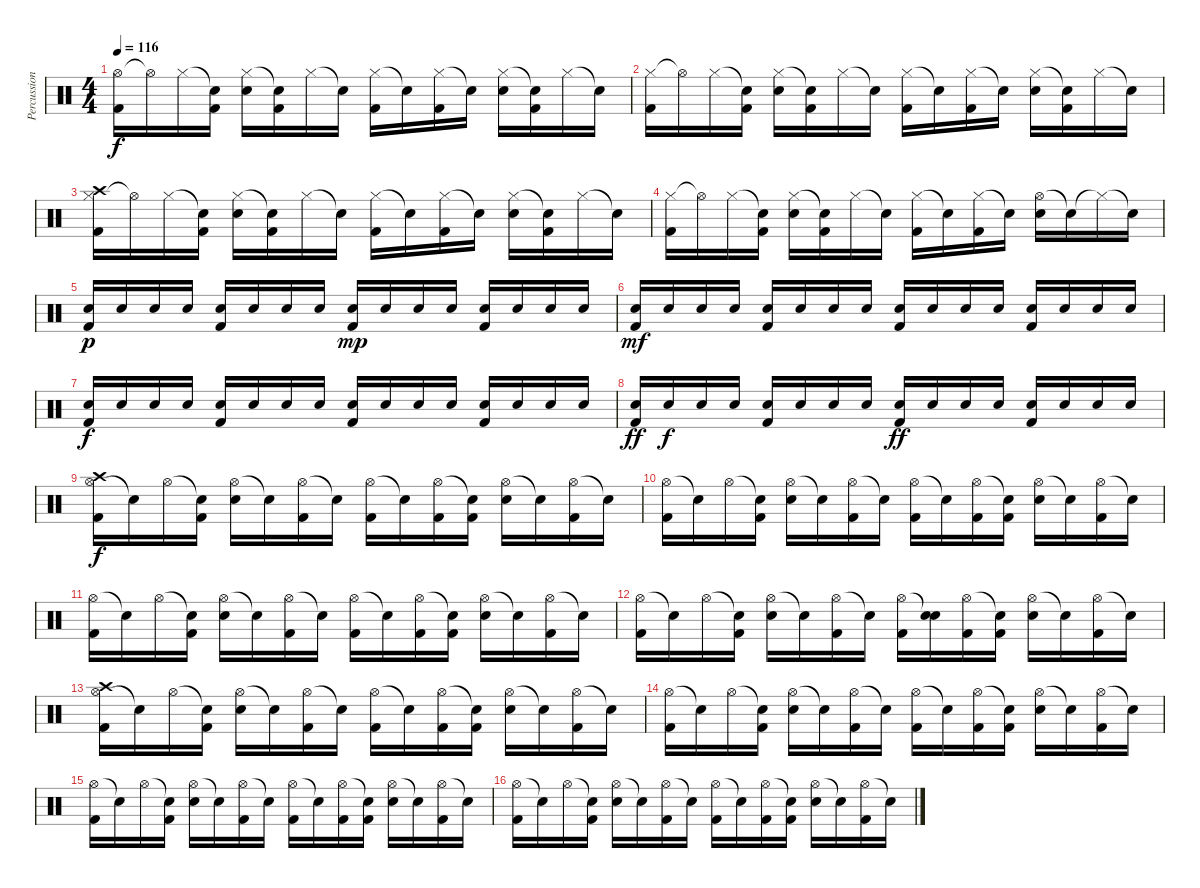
\track ("Percussion" "Percussion") {instrument percussion}
\staff {score}
\articulation defaults
\ts (4 4)
\tempo 116
\clef neutral
\ks c
("Hi-Hat (open)" "Kick (hit) 2").16{dy f} "Hi-Hat (open)"{t}.16 "Hi-Hat (closed)".16 ("Snare (hit)"{t} "Kick (hit) 2").16 ("Hi-Hat (closed)" "Electric Snare (hit)").16 ("Snare (hit)"{t} "Kick (hit) 2").16 "Hi-Hat (closed)".16 "Snare (hit)"{t}.16 ("Hi-Hat (closed)" "Kick (hit) 2").16 "Snare (hit)"{t}.16 ("Hi-Hat (closed)" "Kick (hit) 2").16 "Snare (hit)"{t}.16 ("Hi-Hat (closed)" "Electric Snare (hit)").16 ("Snare (hit)"{t} "Kick (hit) 2").16 "Hi-Hat (closed)".16 "Snare (hit)"{t}.16 |
("Hi-Hat (closed)" "Kick (hit) 2").16 "Hi-Hat (open)"{t}.16 "Hi-Hat (closed)".16 ("Snare (hit)"{t} "Kick (hit) 2").16 ("Hi-Hat (closed)" "Electric Snare (hit)").16 ("Snare (hit)"{t} "Kick (hit) 2").16 "Hi-Hat (closed)".16 "Snare (hit)"{t}.16 ("Hi-Hat (closed)" "Kick (hit) 2").16 "Snare (hit)"{t}.16 ("Hi-Hat (closed)" "Kick (hit) 2").16 "Snare (hit)"{t}.16 ("Hi-Hat (closed)" "Electric Snare (hit)").16 ("Snare (hit)"{t} "Kick (hit) 2").16 "Hi-Hat (closed)".16 "Snare (hit)"{t}.16 |
("Hi-Hat (closed)" "Kick (hit) 2" "Crash high (hit)").16 "Hi-Hat (open)"{t}.16 "Hi-Hat (closed)".16 ("Snare (hit)"{t} "Kick (hit) 2").16 ("Hi-Hat (closed)" "Electric Snare (hit)").16 ("Snare (hit)"{t} "Kick (hit) 2").16 "Hi-Hat (closed)".16 "Snare (hit)"{t}.16 ("Hi-Hat (closed)" "Kick (hit) 2").16 "Snare (hit)"{t}.16 ("Hi-Hat (closed)" "Kick (hit) 2").16 "Snare (hit)"{t}.16 ("Hi-Hat (closed)" "Electric Snare (hit)").16 ("Snare (hit)"{t} "Kick (hit) 2").16 "Hi-Hat (closed)".16 "Snare (hit)"{t}.16 |
("Hi-Hat (closed)" "Kick (hit) 2").16 "Hi-Hat (open)"{t}.16 "Hi-Hat (closed)".16 ("Snare (hit)"{t} "Kick (hit) 2").16 ("Hi-Hat (closed)" "Electric Snare (hit)").16 ("Snare (hit)"{t} "Kick (hit) 2").16 "Hi-Hat (closed)".16 "Snare (hit)"{t}.16 ("Hi-Hat (closed)" "Kick (hit) 2").16 "Snare (hit)"{t}.16 ("Hi-Hat (closed)" "Kick (hit) 2").16 "Snare (hit)"{t}.16 ("Hi-Hat (open)" "Electric Snare (hit)").16 "Snare (hit)"{t}.16 "Hi-Hat (closed)"{t}.16 "Snare (hit)"{t}.16 |
("Kick (hit) 2" "Electric Snare (hit)").16{dy p} "Electric Snare (hit)".16 "Electric Snare (hit)".16 "Electric Snare (hit)".16 ("Kick (hit) 2" "Electric Snare (hit)").16 "Electric Snare (hit)".16 "Electric Snare (hit)".16 "Electric Snare (hit)".16 ("Kick (hit) 2" "Electric Snare (hit)").16{dy mp} "Electric Snare (hit)".16 "Electric Snare (hit)".16 "Electric Snare (hit)".16 ("Kick (hit) 2" "Electric Snare (hit)").16 "Electric Snare (hit)".16 "Electric Snare (hit)".16 "Electric Snare (hit)".16 |
("Kick (hit) 2" "Electric Snare (hit)").16{dy mf} "Electric Snare (hit)".16 "Electric Snare (hit)".16 "Electric Snare (hit)".16 ("Kick (hit) 2" "Electric Snare (hit)").16 "Electric Snare (hit)".16 "Electric Snare (hit)".16 "Electric Snare (hit)".16 ("Kick (hit) 2" "Electric Snare (hit)").16 "Electric Snare (hit)".16 "Electric Snare (hit)".16 "Electric Snare (hit)".16 ("Kick (hit) 2" "Electric Snare (hit)").16 "Electric Snare (hit)".16 "Electric Snare (hit)".16 "Electric Snare (hit)".16 |
("Kick (hit) 2" "Electric Snare (hit)").16{dy f} "Electric Snare (hit)".16 "Electric Snare (hit)".16 "Electric Snare (hit)".16 ("Kick (hit) 2" "Electric Snare (hit)").16 "Electric Snare (hit)".16 "Electric Snare (hit)".16 "Electric Snare (hit)".16 ("Kick (hit) 2" "Electric Snare (hit)").16 "Electric Snare (hit)".16 "Electric Snare (hit)".16 "Electric Snare (hit)".16 ("Kick (hit) 2" "Electric Snare (hit)").16 "Electric Snare (hit)".16 "Electric Snare (hit)".16 "Electric Snare (hit)".16 |
("Kick (hit) 2" "Electric Snare (hit)").16{dy ff} "Electric Snare (hit)".16{dy f} "Electric Snare (hit)".16 "Electric Snare (hit)".16 ("Kick (hit) 2" "Electric Snare (hit)").16 "Electric Snare (hit)".16 "Electric Snare (hit)".16 "Electric Snare (hit)".16 ("Kick (hit) 2" "Electric Snare (hit)").16{dy ff} "Electric Snare (hit)".16 "Electric Snare (hit)".16 "Electric Snare (hit)".16 ("Kick (hit) 2" "Electric Snare (hit)").16 "Electric Snare (hit)".16 "Electric Snare (hit)".16 "Electric Snare (hit)".16 |
("Hi-Hat (open)" "Kick (hit) 2" "Crash high (hit)").16{dy f volume 15} "Snare (hit)"{t}.16 "Hi-Hat (open)".16 ("Snare (hit)"{t} "Kick (hit) 2").16 ("Hi-Hat (open)" "Electric Snare (hit)").16 "Snare (hit)"{t}.16 ("Hi-Hat (open)" "Kick (hit) 2").16 "Snare (hit)"{t}.16 ("Hi-Hat (open)" "Kick (hit) 2").16 "Snare (hit)"{t}.16 ("Hi-Hat (open)" "Kick (hit) 2").16 ("Snare (hit)"{t} "Kick (hit) 2").16 ("Hi-Hat (open)" "Electric Snare (hit)").16 "Snare (hit)"{t}.16 ("Hi-Hat (open)" "Kick (hit) 2").16 "Snare (hit)"{t}.16 |
("Hi-Hat (open)" "Kick (hit) 2").16 "Snare (hit)"{t}.16 "Hi-Hat (open)".16 ("Snare (hit)"{t} "Kick (hit) 2").16 ("Hi-Hat (open)" "Electric Snare (hit)").16 "Snare (hit)"{t}.16 ("Hi-Hat (open)" "Kick (hit) 2").16 "Snare (hit)"{t}.16 ("Hi-Hat (open)" "Kick (hit) 2").16 "Snare (hit)"{t}.16 ("Hi-Hat (open)" "Kick (hit) 2").16 ("Snare (hit)"{t} "Kick (hit) 2").16 ("Hi-Hat (open)" "Electric Snare (hit)").16 "Snare (hit)"{t}.16 ("Hi-Hat (open)" "Kick (hit) 2").16 "Snare (hit)"{t}.16 |
("Hi-Hat (open)" "Kick (hit) 2").16 "Snare (hit)"{t}.16 "Hi-Hat (open)".16 ("Snare (hit)"{t} "Kick (hit) 2").16 ("Hi-Hat (open)" "Electric Snare (hit)").16 "Snare (hit)"{t}.16 ("Hi-Hat (open)" "Kick (hit) 2").16 "Snare (hit)"{t}.16 ("Hi-Hat (open)" "Kick (hit) 2").16 "Snare (hit)"{t}.16 ("Hi-Hat (open)" "Kick (hit) 2").16 ("Snare (hit)"{t} "Kick (hit) 2").16 ("Hi-Hat (open)" "Electric Snare (hit)").16 "Snare (hit)"{t}.16 ("Hi-Hat (open)" "Kick (hit) 2").16 "Snare (hit)"{t}.16 |
("Hi-Hat (open)" "Kick (hit) 2").16 "Snare (hit)"{t}.16 "Hi-Hat (open)".16 ("Snare (hit)"{t} "Kick (hit) 2").16 ("Hi-Hat (open)" "Electric Snare (hit)").16 "Snare (hit)"{t}.16 ("Hi-Hat (open)" "Kick (hit) 2").16 "Snare (hit)"{t}.16 ("Hi-Hat (open)" "Kick (hit) 2").16 ("Snare (hit)"{t} "Electric Snare (hit)").16 ("Hi-Hat (open)" "Kick (hit) 2").16 ("Snare (hit)"{t} "Kick (hit) 2").16 ("Hi-Hat (open)" "Electric Snare (hit)").16 "Snare (hit)"{t}.16 ("Hi-Hat (open)" "Kick (hit) 2").16 "Snare (hit)"{t}.16 |
("Hi-Hat (open)" "Kick (hit) 2" "Crash high (hit)").16 "Snare (hit)"{t}.16 "Hi-Hat (open)".16 ("Snare (hit)"{t} "Kick (hit) 2").16 ("Hi-Hat (open)" "Electric Snare (hit)").16 "Snare (hit)"{t}.16 ("Hi-Hat (open)" "Kick (hit) 2").16 "Snare (hit)"{t}.16 ("Hi-Hat (open)" "Kick (hit) 2").16 "Snare (hit)"{t}.16 ("Hi-Hat (open)" "Kick (hit) 2").16 ("Snare (hit)"{t} "Kick (hit) 2").16 ("Hi-Hat (open)" "Electric Snare (hit)").16 "Snare (hit)"{t}.16 ("Hi-Hat (open)" "Kick (hit) 2").16 "Snare (hit)"{t}.16 |
("Hi-Hat (open)" "Kick (hit) 2").16 "Snare (hit)"{t}.16 "Hi-Hat (open)".16 ("Snare (hit)"{t} "Kick (hit) 2").16 ("Hi-Hat (open)" "Electric Snare (hit)").16 "Snare (hit)"{t}.16 ("Hi-Hat (open)" "Kick (hit) 2").16 "Snare (hit)"{t}.16 ("Hi-Hat (open)" "Kick (hit) 2").16 "Snare (hit)"{t}.16 ("Hi-Hat (open)" "Kick (hit) 2").16 ("Snare (hit)"{t} "Kick (hit) 2").16 ("Hi-Hat (open)" "Electric Snare (hit)").16 "Snare (hit)"{t}.16 ("Hi-Hat (open)" "Kick (hit) 2").16 "Snare (hit)"{t}.16 |
("Hi-Hat (open)" "Kick (hit) 2").16 "Snare (hit)"{t}.16 "Hi-Hat (open)".16 ("Snare (hit)"{t} "Kick (hit) 2").16 ("Hi-Hat (open)" "Electric Snare (hit)").16 "Snare (hit)"{t}.16 ("Hi-Hat (open)" "Kick (hit) 2").16 "Snare (hit)"{t}.16 ("Hi-Hat (open)" "Kick (hit) 2").16 "Snare (hit)"{t}.16 ("Hi-Hat (open)" "Kick (hit) 2").16 ("Snare (hit)"{t} "Kick (hit) 2").16 ("Hi-Hat (open)" "Electric Snare (hit)").16 "Snare (hit)"{t}.16 ("Hi-Hat (open)" "Kick (hit) 2").16 "Snare (hit)"{t}.16 |
("Hi-Hat (open)" "Kick (hit) 2").16 "Snare (hit)"{t}.16 "Hi-Hat (open)".16 ("Snare (hit)"{t} "Kick (hit) 2").16 ("Hi-Hat (open)" "Electric Snare (hit)").16 "Snare (hit)"{t}.16 ("Hi-Hat (open)" "Kick (hit) 2").16 "Snare (hit)"{t}.16 ("Hi-Hat (open)" "Kick (hit) 2").16 "Snare (hit)"{t}.16 ("Hi-Hat (open)" "Kick (hit) 2").16 ("Snare (hit)"{t} "Kick (hit) 2").16 ("Hi-Hat (open)" "Electric Snare (hit)").16 "Snare (hit)"{t}.16 ("Hi-Hat (open)" "Kick (hit) 2").16 "Snare (hit)"{t}.16
